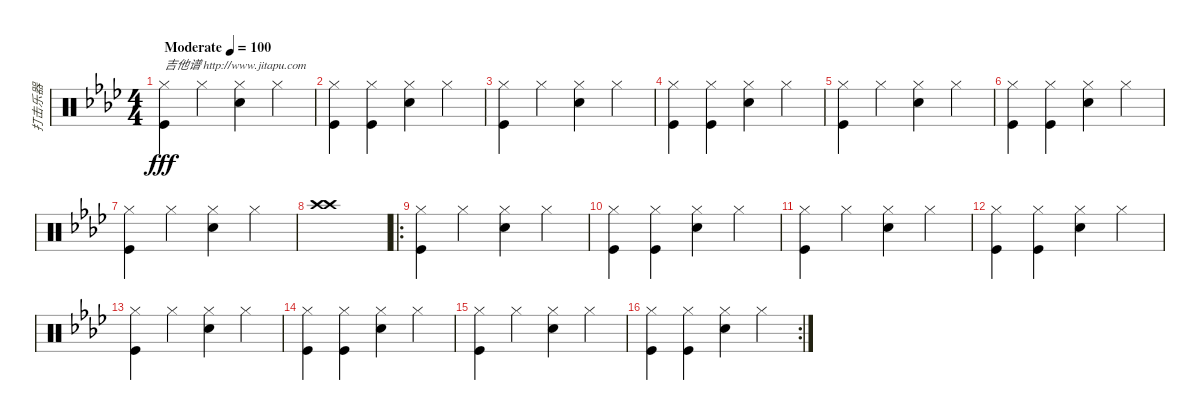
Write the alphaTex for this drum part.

\track ("打击乐器" "打击乐器") {instrument percussion}
\staff {score}
\articulation defaults
\ts (4 4)
\tempo (100 "Moderate")
\clef neutral
\ks ab
("Hi-Hat (closed)" "Kick (hit)").4{txt "吉他谱 http://www.jitapu.com" dy fff} "Hi-Hat (closed)".4 ("Hi-Hat (closed)" "Snare (hit) 2").4 "Hi-Hat (closed)".4 |
("Hi-Hat (closed)" "Kick (hit)").4 ("Hi-Hat (closed)" "Kick (hit)").4 ("Hi-Hat (closed)" "Snare (hit) 2").4 "Hi-Hat (closed)".4 |
("Hi-Hat (closed)" "Kick (hit)").4 "Hi-Hat (closed)".4 ("Hi-Hat (closed)" "Snare (hit) 2").4 "Hi-Hat (closed)".4 |
("Hi-Hat (closed)" "Kick (hit)").4 ("Hi-Hat (closed)" "Kick (hit)").4 ("Hi-Hat (closed)" "Snare (hit) 2").4 "Hi-Hat (closed)".4 |
("Hi-Hat (closed)" "Kick (hit)").4 "Hi-Hat (closed)".4 ("Hi-Hat (closed)" "Snare (hit) 2").4 "Hi-Hat (closed)".4 |
("Hi-Hat (closed)" "Kick (hit)").4 ("Hi-Hat (closed)" "Kick (hit)").4 ("Hi-Hat (closed)" "Snare (hit) 2").4 "Hi-Hat (closed)".4 |
("Hi-Hat (closed)" "Kick (hit)").4 "Hi-Hat (closed)".4 ("Hi-Hat (closed)" "Snare (hit) 2").4 "Hi-Hat (closed)".4 |
("Crash high (hit)" "Crash high (hit)").1 |
\ro
("Hi-Hat (closed)" "Kick (hit)").4 "Hi-Hat (closed)".4 ("Hi-Hat (closed)" "Snare (hit) 2").4 "Hi-Hat (closed)".4 |
("Hi-Hat (closed)" "Kick (hit)").4 ("Kick (hit)" "Hi-Hat (closed)").4 ("Hi-Hat (closed)" "Snare (hit) 2").4 "Hi-Hat (closed)".4 |
("Hi-Hat (closed)" "Kick (hit)").4 "Hi-Hat (closed)".4 ("Hi-Hat (closed)" "Snare (hit) 2").4 "Hi-Hat (closed)".4 |
("Hi-Hat (closed)" "Kick (hit)").4 ("Kick (hit)" "Hi-Hat (closed)").4 ("Hi-Hat (closed)" "Snare (hit) 2").4 "Hi-Hat (closed)".4 |
("Hi-Hat (closed)" "Kick (hit)").4 "Hi-Hat (closed)".4 ("Hi-Hat (closed)" "Snare (hit) 2").4 "Hi-Hat (closed)".4 |
("Hi-Hat (closed)" "Kick (hit)").4 ("Hi-Hat (closed)" "Kick (hit)").4 ("Hi-Hat (closed)" "Snare (hit) 2").4 "Hi-Hat (closed)".4 |
("Hi-Hat (closed)" "Kick (hit)").4 "Hi-Hat (closed)".4 ("Hi-Hat (closed)" "Snare (hit) 2").4 "Hi-Hat (closed)".4 |
\rc 2
("Hi-Hat (closed)" "Kick (hit)").4 ("Hi-Hat (closed)" "Kick (hit)").4 ("Hi-Hat (closed)" "Snare (hit) 2").4 "Hi-Hat (closed)".4
